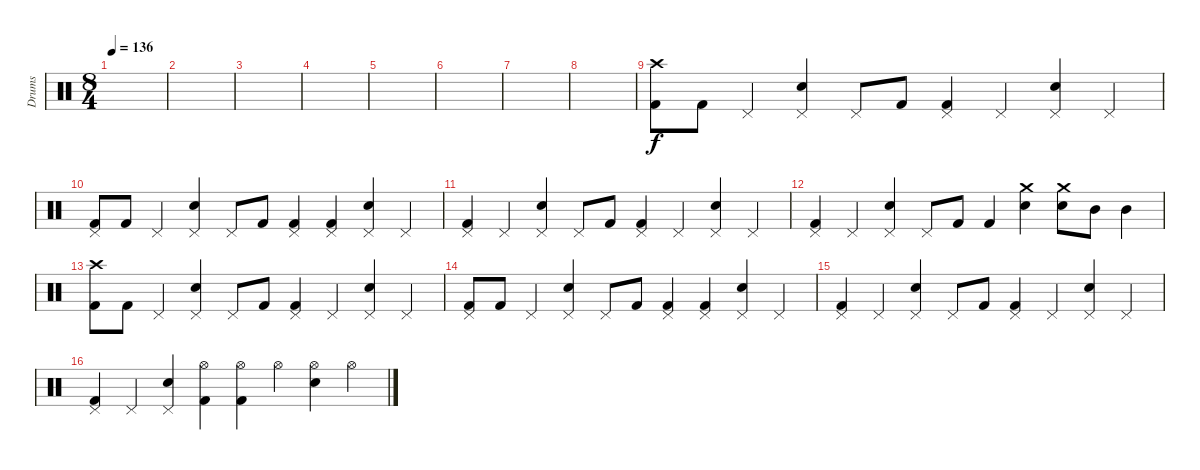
\track ("Drums" "Drums") {instrument percussion}
\staff {score}
\articulation defaults
\ts (8 4)
\tempo 136
\clef neutral
\ks c
|
|
|
|
|
|
|
|
("Crash high (hit)" "Kick (hit) 2").8 "Kick (hit) 2".8 "Pedal Hi-Hat (hit)".4 ("Pedal Hi-Hat (hit)" "Snare (hit) 2").4 "Pedal Hi-Hat (hit)".8 "Kick (hit) 2".8 ("Pedal Hi-Hat (hit)" "Kick (hit) 2").4 "Pedal Hi-Hat (hit)".4 ("Pedal Hi-Hat (hit)" "Snare (hit) 2").4 "Pedal Hi-Hat (hit)".4 |
("Pedal Hi-Hat (hit)" "Kick (hit) 2").8 "Kick (hit) 2".8 "Pedal Hi-Hat (hit)".4 ("Pedal Hi-Hat (hit)" "Snare (hit) 2").4 "Pedal Hi-Hat (hit)".8 "Kick (hit) 2".8 ("Pedal Hi-Hat (hit)" "Kick (hit) 2").4 ("Pedal Hi-Hat (hit)" "Kick (hit) 2").4 ("Pedal Hi-Hat (hit)" "Snare (hit) 2").4 "Pedal Hi-Hat (hit)".4 |
("Pedal Hi-Hat (hit)" "Kick (hit) 2").4 "Pedal Hi-Hat (hit)".4 ("Pedal Hi-Hat (hit)" "Snare (hit) 2").4 "Pedal Hi-Hat (hit)".8 "Kick (hit) 2".8 ("Pedal Hi-Hat (hit)" "Kick (hit) 2").4 "Pedal Hi-Hat (hit)".4 ("Pedal Hi-Hat (hit)" "Snare (hit) 2").4 "Pedal Hi-Hat (hit)".4 |
("Pedal Hi-Hat (hit)" "Kick (hit) 2").4 "Pedal Hi-Hat (hit)".4 ("Pedal Hi-Hat (hit)" "Snare (hit) 2").4 "Pedal Hi-Hat (hit)".8 "Kick (hit) 2".8 "Kick (hit) 2".4 ("Crash medium (hit)" "Snare (hit) 2").4 ("Crash medium (hit)" "Snare (hit) 2").8 "Mid Tom (hit)".8 "Mid Tom (hit)".4 |
("Crash high (hit)" "Kick (hit) 2").8 "Kick (hit) 2".8 "Pedal Hi-Hat (hit)".4 ("Pedal Hi-Hat (hit)" "Snare (hit) 2").4 "Pedal Hi-Hat (hit)".8 "Kick (hit) 2".8 ("Pedal Hi-Hat (hit)" "Kick (hit) 2").4 "Pedal Hi-Hat (hit)".4 ("Pedal Hi-Hat (hit)" "Snare (hit) 2").4 "Pedal Hi-Hat (hit)".4 |
("Pedal Hi-Hat (hit)" "Kick (hit) 2").8 "Kick (hit) 2".8 "Pedal Hi-Hat (hit)".4 ("Pedal Hi-Hat (hit)" "Snare (hit) 2").4 "Pedal Hi-Hat (hit)".8 "Kick (hit) 2".8 ("Pedal Hi-Hat (hit)" "Kick (hit) 2").4 ("Pedal Hi-Hat (hit)" "Kick (hit) 2").4 ("Pedal Hi-Hat (hit)" "Snare (hit) 2").4 "Pedal Hi-Hat (hit)".4 |
("Pedal Hi-Hat (hit)" "Kick (hit) 2").4 "Pedal Hi-Hat (hit)".4 ("Pedal Hi-Hat (hit)" "Snare (hit) 2").4 "Pedal Hi-Hat (hit)".8 "Kick (hit) 2".8 ("Pedal Hi-Hat (hit)" "Kick (hit) 2").4 "Pedal Hi-Hat (hit)".4 ("Pedal Hi-Hat (hit)" "Snare (hit) 2").4 "Pedal Hi-Hat (hit)".4 |
("Pedal Hi-Hat (hit)" "Kick (hit) 2").4 "Pedal Hi-Hat (hit)".4 ("Pedal Hi-Hat (hit)" "Snare (hit) 2").4 ("Hi-Hat (open)" "Kick (hit) 2").4 ("Hi-Hat (open)" "Kick (hit) 2").4 "Hi-Hat (open)".4 ("Hi-Hat (open)" "Snare (hit) 2").4 "Hi-Hat (open)".4
